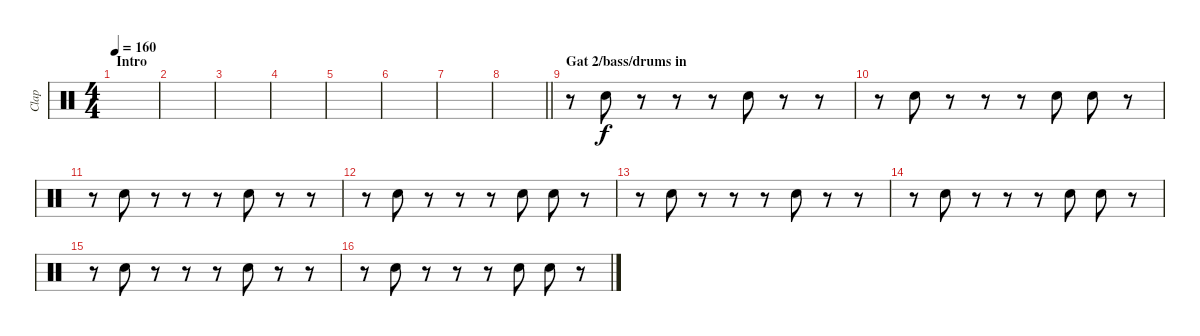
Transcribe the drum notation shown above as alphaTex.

\track ("Clap" "Clap") {instrument percussion}
\staff {score}
\articulation defaults
\ts (4 4)
\section ("" "Intro")
\tempo 160
\clef neutral
\ks c
|
|
|
|
|
|
|
\barLineRight lightlight
|
\section ("" "Gat 2/bass/drums in")
r.8 "Hand Clap (hit)".8 r.8 r.8 r.8 "Hand Clap (hit)".8 r.8 r.8 |
r.8 "Hand Clap (hit)".8 r.8 r.8 r.8 "Hand Clap (hit)".8 "Hand Clap (hit)".8 r.8 |
r.8 "Hand Clap (hit)".8 r.8 r.8 r.8 "Hand Clap (hit)".8 r.8 r.8 |
r.8 "Hand Clap (hit)".8 r.8 r.8 r.8 "Hand Clap (hit)".8 "Hand Clap (hit)".8 r.8 |
r.8 "Hand Clap (hit)".8 r.8 r.8 r.8 "Hand Clap (hit)".8 r.8 r.8 |
r.8 "Hand Clap (hit)".8 r.8 r.8 r.8 "Hand Clap (hit)".8 "Hand Clap (hit)".8 r.8 |
r.8 "Hand Clap (hit)".8 r.8 r.8 r.8 "Hand Clap (hit)".8 r.8 r.8 |
r.8 "Hand Clap (hit)".8 r.8 r.8 r.8 "Hand Clap (hit)".8 "Hand Clap (hit)".8 r.8
